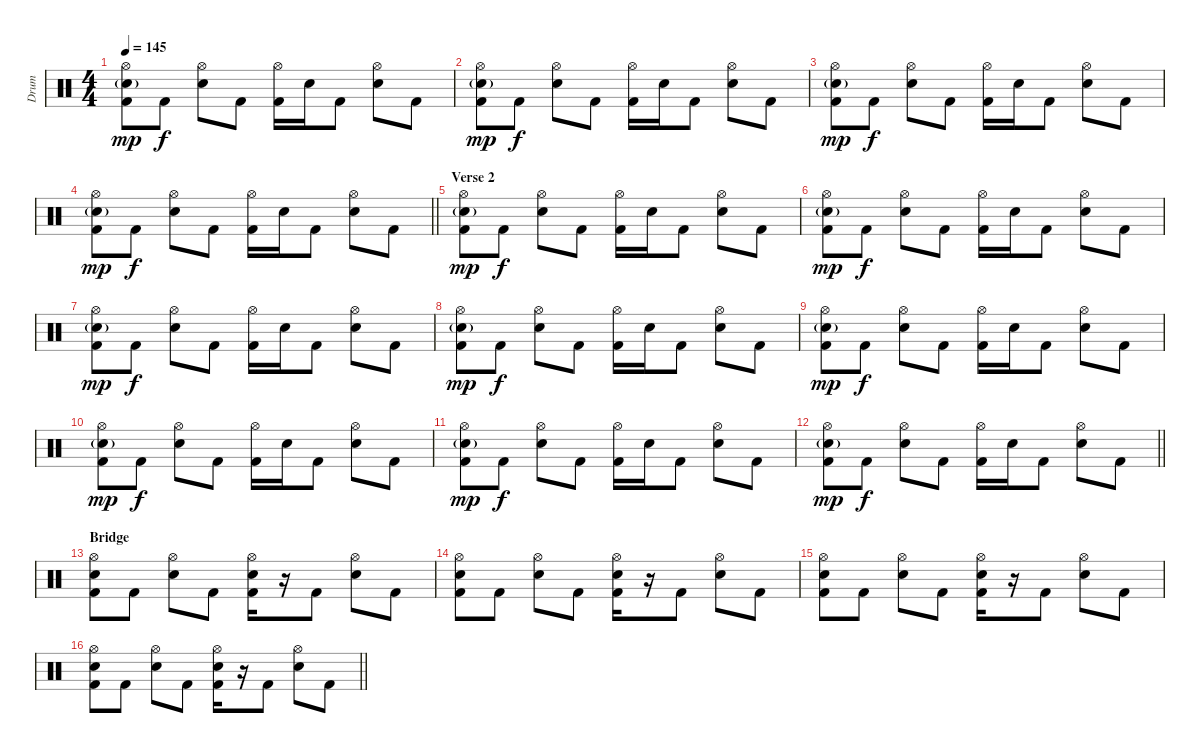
\track ("Drum" "Drum") {instrument percussion}
\staff {score}
\articulation defaults
\ts (4 4)
\tempo 145
\clef neutral
\ks c
("Hi-Hat (open)" "Electric Snare (hit)"{g} "Kick (hit) 2").8{dy mp} "Kick (hit) 2".8{dy f} ("Hi-Hat (open)" "Electric Snare (hit)").8 "Kick (hit) 2".8 ("Hi-Hat (open)" "Kick (hit) 2").16 "Electric Snare (hit)".16 "Kick (hit) 2".8 ("Hi-Hat (open)" "Electric Snare (hit)").8 "Kick (hit) 2".8 |
("Hi-Hat (open)" "Electric Snare (hit)"{g} "Kick (hit) 2").8{dy mp} "Kick (hit) 2".8{dy f} ("Hi-Hat (open)" "Electric Snare (hit)").8 "Kick (hit) 2".8 ("Hi-Hat (open)" "Kick (hit) 2").16 "Electric Snare (hit)".16 "Kick (hit) 2".8 ("Hi-Hat (open)" "Electric Snare (hit)").8 "Kick (hit) 2".8 |
("Hi-Hat (open)" "Electric Snare (hit)"{g} "Kick (hit) 2").8{dy mp} "Kick (hit) 2".8{dy f} ("Hi-Hat (open)" "Electric Snare (hit)").8 "Kick (hit) 2".8 ("Hi-Hat (open)" "Kick (hit) 2").16 "Electric Snare (hit)".16 "Kick (hit) 2".8 ("Hi-Hat (open)" "Electric Snare (hit)").8 "Kick (hit) 2".8 |
\barLineRight lightlight
("Hi-Hat (open)" "Electric Snare (hit)"{g} "Kick (hit) 2").8{dy mp} "Kick (hit) 2".8{dy f} ("Hi-Hat (open)" "Electric Snare (hit)").8 "Kick (hit) 2".8 ("Hi-Hat (open)" "Kick (hit) 2").16 "Electric Snare (hit)".16 "Kick (hit) 2".8 ("Hi-Hat (open)" "Electric Snare (hit)").8 "Kick (hit) 2".8 |
\section ("" "Verse 2")
("Hi-Hat (open)" "Electric Snare (hit)"{g} "Kick (hit) 2").8{dy mp} "Kick (hit) 2".8{dy f} ("Hi-Hat (open)" "Electric Snare (hit)").8 "Kick (hit) 2".8 ("Hi-Hat (open)" "Kick (hit) 2").16 "Electric Snare (hit)".16 "Kick (hit) 2".8 ("Hi-Hat (open)" "Electric Snare (hit)").8 "Kick (hit) 2".8 |
("Hi-Hat (open)" "Electric Snare (hit)"{g} "Kick (hit) 2").8{dy mp} "Kick (hit) 2".8{dy f} ("Hi-Hat (open)" "Electric Snare (hit)").8 "Kick (hit) 2".8 ("Hi-Hat (open)" "Kick (hit) 2").16 "Electric Snare (hit)".16 "Kick (hit) 2".8 ("Hi-Hat (open)" "Electric Snare (hit)").8 "Kick (hit) 2".8 |
("Hi-Hat (open)" "Electric Snare (hit)"{g} "Kick (hit) 2").8{dy mp} "Kick (hit) 2".8{dy f} ("Hi-Hat (open)" "Electric Snare (hit)").8 "Kick (hit) 2".8 ("Hi-Hat (open)" "Kick (hit) 2").16 "Electric Snare (hit)".16 "Kick (hit) 2".8 ("Hi-Hat (open)" "Electric Snare (hit)").8 "Kick (hit) 2".8 |
("Hi-Hat (open)" "Electric Snare (hit)"{g} "Kick (hit) 2").8{dy mp} "Kick (hit) 2".8{dy f} ("Hi-Hat (open)" "Electric Snare (hit)").8 "Kick (hit) 2".8 ("Hi-Hat (open)" "Kick (hit) 2").16 "Electric Snare (hit)".16 "Kick (hit) 2".8 ("Hi-Hat (open)" "Electric Snare (hit)").8 "Kick (hit) 2".8 |
("Hi-Hat (open)" "Electric Snare (hit)"{g} "Kick (hit) 2").8{dy mp} "Kick (hit) 2".8{dy f} ("Hi-Hat (open)" "Electric Snare (hit)").8 "Kick (hit) 2".8 ("Hi-Hat (open)" "Kick (hit) 2").16 "Electric Snare (hit)".16 "Kick (hit) 2".8 ("Hi-Hat (open)" "Electric Snare (hit)").8 "Kick (hit) 2".8 |
("Hi-Hat (open)" "Electric Snare (hit)"{g} "Kick (hit) 2").8{dy mp} "Kick (hit) 2".8{dy f} ("Hi-Hat (open)" "Electric Snare (hit)").8 "Kick (hit) 2".8 ("Hi-Hat (open)" "Kick (hit) 2").16 "Electric Snare (hit)".16 "Kick (hit) 2".8 ("Hi-Hat (open)" "Electric Snare (hit)").8 "Kick (hit) 2".8 |
("Hi-Hat (open)" "Electric Snare (hit)"{g} "Kick (hit) 2").8{dy mp} "Kick (hit) 2".8{dy f} ("Hi-Hat (open)" "Electric Snare (hit)").8 "Kick (hit) 2".8 ("Hi-Hat (open)" "Kick (hit) 2").16 "Electric Snare (hit)".16 "Kick (hit) 2".8 ("Hi-Hat (open)" "Electric Snare (hit)").8 "Kick (hit) 2".8 |
\barLineRight lightlight
("Hi-Hat (open)" "Electric Snare (hit)"{g} "Kick (hit) 2").8{dy mp} "Kick (hit) 2".8{dy f} ("Hi-Hat (open)" "Electric Snare (hit)").8 "Kick (hit) 2".8 ("Hi-Hat (open)" "Kick (hit) 2").16 "Electric Snare (hit)".16 "Kick (hit) 2".8 ("Hi-Hat (open)" "Electric Snare (hit)").8 "Kick (hit) 2".8 |
\section ("" "Bridge")
("Hi-Hat (open)" "Electric Snare (hit)" "Kick (hit) 2").8 "Kick (hit) 2".8 ("Hi-Hat (open)" "Electric Snare (hit)").8 "Kick (hit) 2".8 ("Hi-Hat (open)" "Electric Snare (hit)" "Kick (hit) 2").16 r.16 "Kick (hit) 2".8 ("Hi-Hat (open)" "Electric Snare (hit)").8 "Kick (hit) 2".8 |
("Hi-Hat (open)" "Electric Snare (hit)" "Kick (hit) 2").8 "Kick (hit) 2".8 ("Hi-Hat (open)" "Electric Snare (hit)").8 "Kick (hit) 2".8 ("Hi-Hat (open)" "Electric Snare (hit)" "Kick (hit) 2").16 r.16 "Kick (hit) 2".8 ("Hi-Hat (open)" "Electric Snare (hit)").8 "Kick (hit) 2".8 |
("Hi-Hat (open)" "Electric Snare (hit)" "Kick (hit) 2").8 "Kick (hit) 2".8 ("Hi-Hat (open)" "Electric Snare (hit)").8 "Kick (hit) 2".8 ("Hi-Hat (open)" "Electric Snare (hit)" "Kick (hit) 2").16 r.16 "Kick (hit) 2".8 ("Hi-Hat (open)" "Electric Snare (hit)").8 "Kick (hit) 2".8 |
\barLineRight lightlight
("Hi-Hat (open)" "Electric Snare (hit)" "Kick (hit) 2").8 "Kick (hit) 2".8 ("Hi-Hat (open)" "Electric Snare (hit)").8 "Kick (hit) 2".8 ("Hi-Hat (open)" "Electric Snare (hit)" "Kick (hit) 2").16 r.16 "Kick (hit) 2".8 ("Hi-Hat (open)" "Electric Snare (hit)").8 "Kick (hit) 2".8
